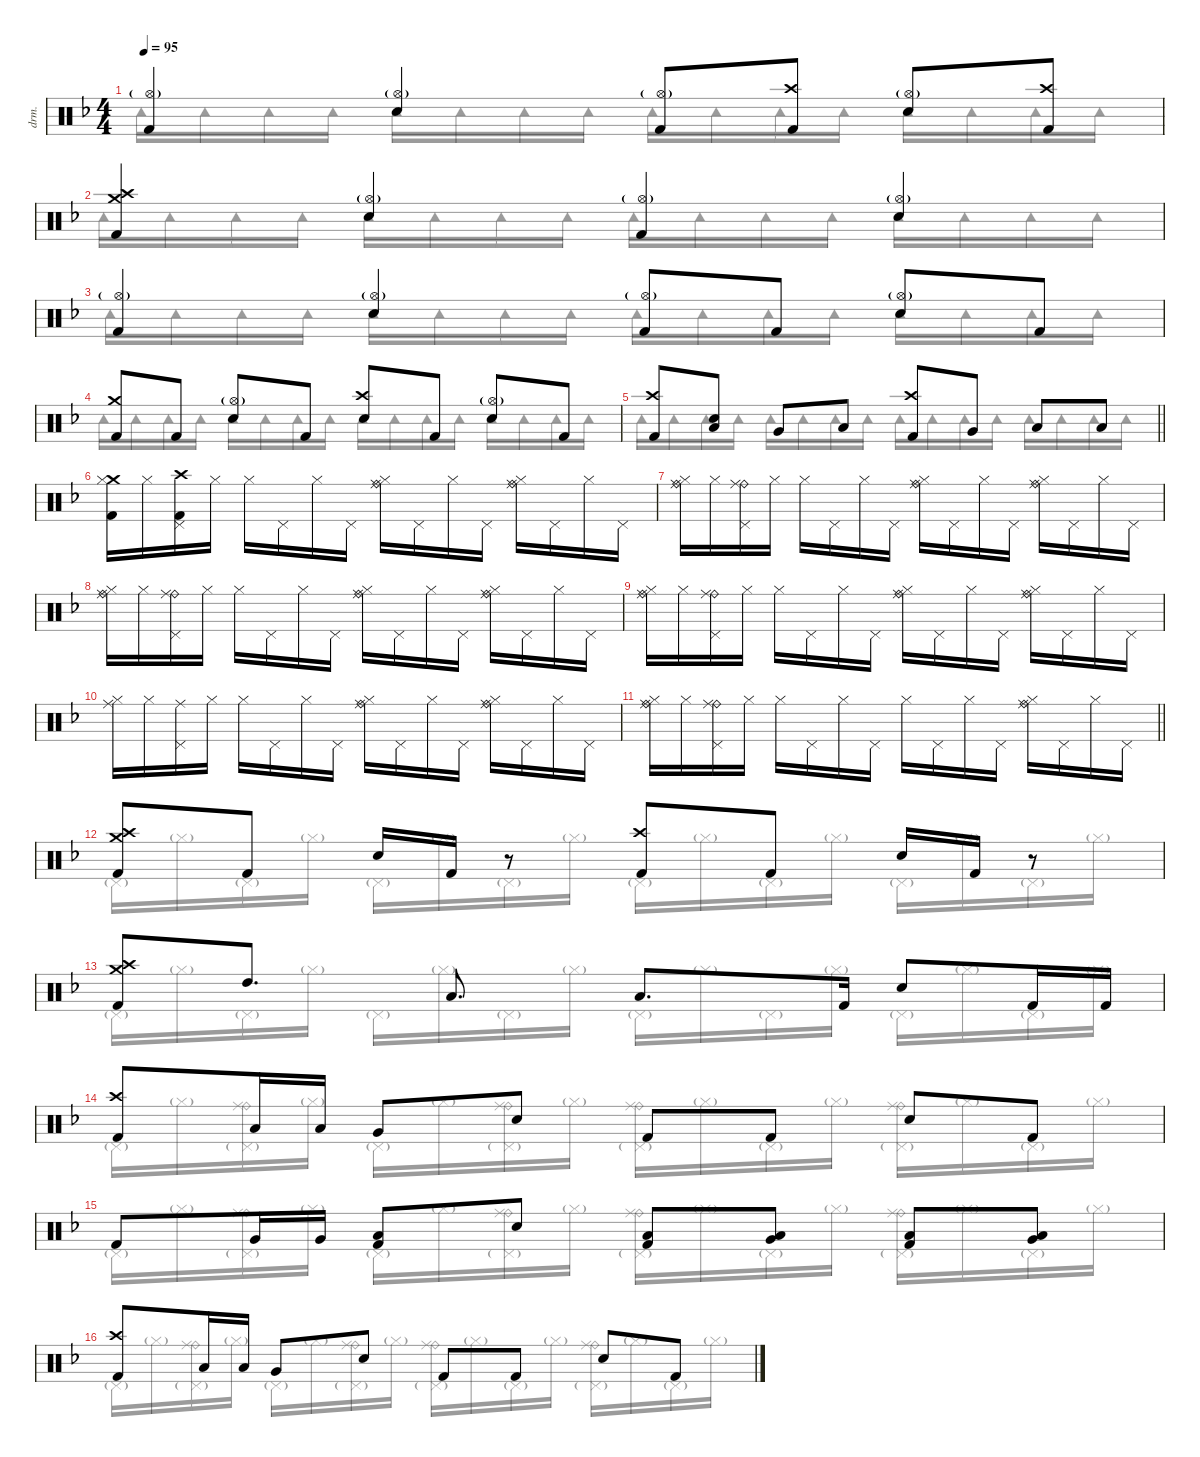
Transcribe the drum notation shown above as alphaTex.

\defaultSystemsLayout 4
\hideDynamics
\bracketExtendMode nobrackets
\track ("Jukka" "drm.") {instrument percussion}
\staff {score}
\articulation defaults
\voice
\ts (4 4)
\tempo 95
\clef neutral
\ks f
("Hi-Hat (open)"{g acc forcenatural} "Kick (hit) 2"{acc forcenatural}).4{dy f} ("Hi-Hat (open)"{g acc forcenatural} "Snare (hit) 2"{acc forcenatural}).4 ("Hi-Hat (open)"{g acc forcenatural} "Kick (hit) 2"{acc forcenatural}).8 ("Crash high (hit)"{acc forcenatural} "Kick (hit) 2"{acc forcenatural}).8 ("Hi-Hat (open)"{g acc forcenatural} "Snare (hit) 2"{acc forcenatural}).8 ("Crash high (hit)"{acc forcenatural} "Kick (hit) 2"{acc forcenatural}).8 |
("Crash high (hit)"{acc forcenatural} "Crash medium (hit)"{acc forcenatural} "Kick (hit) 2"{acc forcenatural}).4 ("Hi-Hat (open)"{g acc forcenatural} "Snare (hit) 2"{acc forcenatural}).4 ("Hi-Hat (open)"{g acc forcenatural} "Kick (hit) 2"{acc forcenatural}).4 ("Hi-Hat (open)"{g acc forcenatural} "Snare (hit) 2"{acc forcenatural}).4 |
("Hi-Hat (open)"{g acc forcenatural} "Kick (hit) 2"{acc forcenatural}).4 ("Hi-Hat (open)"{g acc forcenatural} "Snare (hit) 2"{acc forcenatural}).4 ("Hi-Hat (open)"{g acc forcenatural} "Kick (hit) 2"{acc forcenatural}).8 "Kick (hit) 2"{acc forcenatural}.8 ("Hi-Hat (open)"{g acc forcenatural} "Snare (hit) 2"{acc forcenatural}).8 "Kick (hit) 2"{acc forcenatural}.8 |
("Crash medium (hit)"{acc forcenatural} "Kick (hit) 2"{acc forcenatural}).8 "Kick (hit) 2"{acc forcenatural}.8 ("Hi-Hat (open)"{g acc forcenatural} "Snare (hit) 2"{acc forcenatural}).8 "Kick (hit) 2"{acc forcenatural}.8 ("Crash high (hit)"{acc forcenatural} "Snare (hit) 2"{acc forcenatural}).8 "Kick (hit) 2"{acc forcenatural}.8 ("Hi-Hat (open)"{g acc forcenatural} "Snare (hit) 2"{acc forcenatural}).8 "Kick (hit) 2"{acc forcenatural}.8 |
\barLineRight lightlight
("Crash high (hit)"{acc forcenatural} "Kick (hit) 2"{acc forcenatural}).8 ("Snare (hit) 2"{acc forcenatural} "Low Tom (hit)"{acc forcenatural}).8 "Very Low Tom (hit)"{acc forcenatural}.8 "Low Floor Tom (hit)"{acc forcenatural}.8 ("Crash high (hit)"{acc forcenatural} "Kick (hit) 2"{acc forcenatural}).8 "Very Low Tom (hit)"{acc forcenatural}.8 "Low Floor Tom (hit)"{acc forcenatural}.8 "Low Floor Tom (hit)"{acc forcenatural}.8 |
("Crash medium (hit)"{acc forcenatural} "Hi-Hat (closed)"{acc forcenatural} "Kick (hit) 2"{acc forcenatural}).16 "Hi-Hat (closed)"{acc forcenatural}.16{dy mp} ("Crash high (hit)"{acc forcenatural} "Pedal Hi-Hat (hit)"{acc forcenatural} "Kick (hit) 2"{acc forcenatural}).16{dy f} "Hi-Hat (closed)"{acc forcenatural}.16{dy mp} "Hi-Hat (closed)"{acc forcenatural}.16 "Pedal Hi-Hat (hit)"{acc forcenatural}.16 "Hi-Hat (closed)"{acc forcenatural}.16 "Pedal Hi-Hat (hit)"{acc forcenatural}.16 ("Hi-Hat (closed)"{acc forcenatural} "Ride (bell)"{acc forcenatural} "Ride (middle)"{acc forcenatural}).16 "Pedal Hi-Hat (hit)"{acc forcenatural}.16 "Hi-Hat (closed)"{acc forcenatural}.16 "Pedal Hi-Hat (hit)"{acc forcenatural}.16 ("Hi-Hat (closed)"{acc forcenatural} "Ride (bell)"{acc forcenatural} "Ride (middle)"{acc forcenatural}).16 "Pedal Hi-Hat (hit)"{acc forcenatural}.16 "Hi-Hat (closed)"{acc forcenatural}.16 "Pedal Hi-Hat (hit)"{acc forcenatural}.16 |
("Hi-Hat (closed)"{acc forcenatural} "Ride (bell)"{acc forcenatural} "Ride (middle)"{acc forcenatural}).16 "Hi-Hat (closed)"{acc forcenatural}.16 ("Pedal Hi-Hat (hit)"{acc forcenatural} "Ride (bell)"{acc forcenatural} "Ride (middle)"{acc forcenatural}).16 "Hi-Hat (closed)"{acc forcenatural}.16 "Hi-Hat (closed)"{acc forcenatural}.16 "Pedal Hi-Hat (hit)"{acc forcenatural}.16 "Hi-Hat (closed)"{acc forcenatural}.16 "Pedal Hi-Hat (hit)"{acc forcenatural}.16 ("Hi-Hat (closed)"{acc forcenatural} "Ride (bell)"{acc forcenatural} "Ride (middle)"{acc forcenatural}).16 "Pedal Hi-Hat (hit)"{acc forcenatural}.16 "Hi-Hat (closed)"{acc forcenatural}.16 "Pedal Hi-Hat (hit)"{acc forcenatural}.16 ("Hi-Hat (closed)"{acc forcenatural} "Ride (bell)"{acc forcenatural} "Ride (middle)"{acc forcenatural}).16 "Pedal Hi-Hat (hit)"{acc forcenatural}.16 "Hi-Hat (closed)"{acc forcenatural}.16 "Pedal Hi-Hat (hit)"{acc forcenatural}.16 |
("Hi-Hat (closed)"{acc forcenatural} "Ride (bell)"{acc forcenatural} "Ride (middle)"{acc forcenatural}).16 "Hi-Hat (closed)"{acc forcenatural}.16 ("Pedal Hi-Hat (hit)"{acc forcenatural} "Ride (bell)"{acc forcenatural} "Ride (middle)"{acc forcenatural}).16 "Hi-Hat (closed)"{acc forcenatural}.16 "Hi-Hat (closed)"{acc forcenatural}.16 "Pedal Hi-Hat (hit)"{acc forcenatural}.16 "Hi-Hat (closed)"{acc forcenatural}.16 "Pedal Hi-Hat (hit)"{acc forcenatural}.16 ("Hi-Hat (closed)"{acc forcenatural} "Ride (bell)"{acc forcenatural} "Ride (middle)"{acc forcenatural}).16 "Pedal Hi-Hat (hit)"{acc forcenatural}.16 "Hi-Hat (closed)"{acc forcenatural}.16 "Pedal Hi-Hat (hit)"{acc forcenatural}.16 ("Hi-Hat (closed)"{acc forcenatural} "Ride (bell)"{acc forcenatural} "Ride (middle)"{acc forcenatural}).16 "Pedal Hi-Hat (hit)"{acc forcenatural}.16 "Hi-Hat (closed)"{acc forcenatural}.16 "Pedal Hi-Hat (hit)"{acc forcenatural}.16 |
("Hi-Hat (closed)"{acc forcenatural} "Ride (bell)"{acc forcenatural} "Ride (middle)"{acc forcenatural}).16 "Hi-Hat (closed)"{acc forcenatural}.16 ("Pedal Hi-Hat (hit)"{acc forcenatural} "Ride (bell)"{acc forcenatural} "Ride (middle)"{acc forcenatural}).16 "Hi-Hat (closed)"{acc forcenatural}.16 "Hi-Hat (closed)"{acc forcenatural}.16 "Pedal Hi-Hat (hit)"{acc forcenatural}.16 "Hi-Hat (closed)"{acc forcenatural}.16 "Pedal Hi-Hat (hit)"{acc forcenatural}.16 ("Hi-Hat (closed)"{acc forcenatural} "Ride (bell)"{acc forcenatural} "Ride (middle)"{acc forcenatural}).16 "Pedal Hi-Hat (hit)"{acc forcenatural}.16 "Hi-Hat (closed)"{acc forcenatural}.16 "Pedal Hi-Hat (hit)"{acc forcenatural}.16 ("Hi-Hat (closed)"{acc forcenatural} "Ride (bell)"{acc forcenatural} "Ride (middle)"{acc forcenatural}).16 "Pedal Hi-Hat (hit)"{acc forcenatural}.16 "Hi-Hat (closed)"{acc forcenatural}.16 "Pedal Hi-Hat (hit)"{acc forcenatural}.16 |
("Hi-Hat (closed)"{acc forcenatural} "Ride (middle)"{acc forcenatural}).16 "Hi-Hat (closed)"{acc forcenatural}.16 ("Pedal Hi-Hat (hit)"{acc forcenatural} "Ride (middle)"{acc forcenatural}).16 "Hi-Hat (closed)"{acc forcenatural}.16 "Hi-Hat (closed)"{acc forcenatural}.16 "Pedal Hi-Hat (hit)"{acc forcenatural}.16 "Hi-Hat (closed)"{acc forcenatural}.16 "Pedal Hi-Hat (hit)"{acc forcenatural}.16 ("Hi-Hat (closed)"{acc forcenatural} "Ride (bell)"{acc forcenatural} "Ride (middle)"{acc forcenatural}).16 "Pedal Hi-Hat (hit)"{acc forcenatural}.16 "Hi-Hat (closed)"{acc forcenatural}.16 "Pedal Hi-Hat (hit)"{acc forcenatural}.16 ("Hi-Hat (closed)"{acc forcenatural} "Ride (bell)"{acc forcenatural} "Ride (middle)"{acc forcenatural}).16 "Pedal Hi-Hat (hit)"{acc forcenatural}.16 "Hi-Hat (closed)"{acc forcenatural}.16 "Pedal Hi-Hat (hit)"{acc forcenatural}.16 |
\barLineRight lightlight
("Hi-Hat (closed)"{acc forcenatural} "Ride (bell)"{acc forcenatural} "Ride (middle)"{acc forcenatural}).16 "Hi-Hat (closed)"{acc forcenatural}.16 ("Pedal Hi-Hat (hit)"{acc forcenatural} "Ride (bell)"{acc forcenatural} "Ride (middle)"{acc forcenatural}).16 "Hi-Hat (closed)"{acc forcenatural}.16 "Hi-Hat (closed)"{acc forcenatural}.16 "Pedal Hi-Hat (hit)"{acc forcenatural}.16 "Hi-Hat (closed)"{acc forcenatural}.16 "Pedal Hi-Hat (hit)"{acc forcenatural}.16 "Hi-Hat (closed)"{acc forcenatural}.16 "Pedal Hi-Hat (hit)"{acc forcenatural}.16 "Hi-Hat (closed)"{acc forcenatural}.16 "Pedal Hi-Hat (hit)"{acc forcenatural}.16 ("Hi-Hat (closed)"{acc forcenatural} "Ride (bell)"{acc forcenatural} "Ride (middle)"{acc forcenatural}).16 "Pedal Hi-Hat (hit)"{acc forcenatural}.16 "Hi-Hat (closed)"{acc forcenatural}.16 "Pedal Hi-Hat (hit)"{acc forcenatural}.16 |
("Crash high (hit)"{acc forcenatural} "Crash medium (hit)"{acc forcenatural} "Kick (hit) 2"{acc forcenatural}).8{dy f} "Kick (hit) 2"{acc forcenatural}.8 "Snare (hit) 2"{acc forcenatural}.16 "Kick (hit) 2"{acc forcenatural}.16 r.8 ("Crash high (hit)"{acc forcenatural} "Kick (hit) 2"{acc forcenatural}).8 "Kick (hit) 2"{acc forcenatural}.8 "Snare (hit) 2"{acc forcenatural}.16 "Kick (hit) 2"{acc forcenatural}.16 r.8 |
("Crash high (hit)"{acc forcenatural} "Crash medium (hit)"{acc forcenatural} "Kick (hit) 2"{acc forcenatural}).8 "High Tom (hit)"{acc forcenatural}.8{d} "Low Tom (hit)"{acc forcenatural}.8{d} "Low Floor Tom (hit)"{acc forcenatural}.8{d} "Kick (hit) 2"{acc forcenatural}.16 "Snare (hit) 2"{acc forcenatural}.8 "Kick (hit) 2"{acc forcenatural}.16 "Kick (hit) 2"{acc forcenatural}.16 |
("Crash high (hit)"{acc forcenatural} "Kick (hit) 2"{acc forcenatural}).8{dy mf} "Low Tom (hit)"{acc forcenatural}.16 "Low Tom (hit)"{acc forcenatural}.16 "Very Low Tom (hit)"{acc forcenatural}.8 "Snare (hit) 2"{acc forcenatural}.8{dy f} "Kick (hit) 2"{acc forcenatural}.8 "Kick (hit) 2"{acc forcenatural}.8 "Snare (hit) 2"{acc forcenatural}.8 "Kick (hit) 2"{acc forcenatural}.8 |
"Kick (hit) 2"{acc forcenatural}.8 "Very Low Tom (hit)"{acc forcenatural}.16 "Very Low Tom (hit)"{acc forcenatural}.16 ("Low Floor Tom (hit)"{acc forcenatural} "Kick (hit) 2"{acc forcenatural}).8 "Snare (hit) 2"{acc forcenatural}.8 ("Low Floor Tom (hit)"{acc forcenatural} "Kick (hit) 2"{acc forcenatural}).8 ("Very Low Tom (hit)"{acc forcenatural} "Low Floor Tom (hit)"{acc forcenatural}).8 ("Low Floor Tom (hit)"{acc forcenatural} "Kick (hit) 2"{acc forcenatural}).8 ("Very Low Tom (hit)"{acc forcenatural} "Low Floor Tom (hit)"{acc forcenatural}).8 |
("Crash high (hit)"{acc forcenatural} "Kick (hit) 2"{acc forcenatural}).8{dy mf} "Low Tom (hit)"{acc forcenatural}.16 "Low Tom (hit)"{acc forcenatural}.16 "Very Low Tom (hit)"{acc forcenatural}.8 "Snare (hit) 2"{acc forcenatural}.8{dy f} "Kick (hit) 2"{acc forcenatural}.8 "Kick (hit) 2"{acc forcenatural}.8 "Snare (hit) 2"{acc forcenatural}.8 "Kick (hit) 2"{acc forcenatural}.8
\voice
\clef neutral
\ottava regular
\simile none
\ks f "Tambourine (hit)"{acc forcenatural}.16{dy pp} "Tambourine (hit)"{acc forcenatural}.16 "Tambourine (hit)"{acc forcenatural}.16 "Tambourine (hit)"{acc forcenatural}.16 "Tambourine (hit)"{acc forcenatural}.16 "Tambourine (hit)"{acc forcenatural}.16 "Tambourine (hit)"{acc forcenatural}.16 "Tambourine (hit)"{acc forcenatural}.16 "Tambourine (hit)"{acc forcenatural}.16 "Tambourine (hit)"{acc forcenatural}.16 "Tambourine (hit)"{acc forcenatural}.16 "Tambourine (hit)"{acc forcenatural}.16 "Tambourine (hit)"{acc forcenatural}.16 "Tambourine (hit)"{acc forcenatural}.16 "Tambourine (hit)"{acc forcenatural}.16 "Tambourine (hit)"{acc forcenatural}.16
|
"Tambourine (hit)"{acc forcenatural}.16 "Tambourine (hit)"{acc forcenatural}.16 "Tambourine (hit)"{acc forcenatural}.16 "Tambourine (hit)"{acc forcenatural}.16 "Tambourine (hit)"{acc forcenatural}.16 "Tambourine (hit)"{acc forcenatural}.16 "Tambourine (hit)"{acc forcenatural}.16 "Tambourine (hit)"{acc forcenatural}.16 "Tambourine (hit)"{acc forcenatural}.16 "Tambourine (hit)"{acc forcenatural}.16 "Tambourine (hit)"{acc forcenatural}.16 "Tambourine (hit)"{acc forcenatural}.16 "Tambourine (hit)"{acc forcenatural}.16 "Tambourine (hit)"{acc forcenatural}.16 "Tambourine (hit)"{acc forcenatural}.16 "Tambourine (hit)"{acc forcenatural}.16 |
"Tambourine (hit)"{acc forcenatural}.16 "Tambourine (hit)"{acc forcenatural}.16 "Tambourine (hit)"{acc forcenatural}.16 "Tambourine (hit)"{acc forcenatural}.16 "Tambourine (hit)"{acc forcenatural}.16 "Tambourine (hit)"{acc forcenatural}.16 "Tambourine (hit)"{acc forcenatural}.16 "Tambourine (hit)"{acc forcenatural}.16 "Tambourine (hit)"{acc forcenatural}.16 "Tambourine (hit)"{acc forcenatural}.16 "Tambourine (hit)"{acc forcenatural}.16 "Tambourine (hit)"{acc forcenatural}.16 "Tambourine (hit)"{acc forcenatural}.16 "Tambourine (hit)"{acc forcenatural}.16 "Tambourine (hit)"{acc forcenatural}.16 "Tambourine (hit)"{acc forcenatural}.16 |
"Tambourine (hit)"{acc forcenatural}.16 "Tambourine (hit)"{acc forcenatural}.16 "Tambourine (hit)"{acc forcenatural}.16 "Tambourine (hit)"{acc forcenatural}.16 "Tambourine (hit)"{acc forcenatural}.16 "Tambourine (hit)"{acc forcenatural}.16 "Tambourine (hit)"{acc forcenatural}.16 "Tambourine (hit)"{acc forcenatural}.16 "Tambourine (hit)"{acc forcenatural}.16 "Tambourine (hit)"{acc forcenatural}.16 "Tambourine (hit)"{acc forcenatural}.16 "Tambourine (hit)"{acc forcenatural}.16 "Tambourine (hit)"{acc forcenatural}.16 "Tambourine (hit)"{acc forcenatural}.16 "Tambourine (hit)"{acc forcenatural}.16 "Tambourine (hit)"{acc forcenatural}.16 |
\barLineRight lightlight "Tambourine (hit)"{acc forcenatural}.16 "Tambourine (hit)"{acc forcenatural}.16 "Tambourine (hit)"{acc forcenatural}.16 "Tambourine (hit)"{acc forcenatural}.16 "Tambourine (hit)"{acc forcenatural}.16 "Tambourine (hit)"{acc forcenatural}.16 "Tambourine (hit)"{acc forcenatural}.16 "Tambourine (hit)"{acc forcenatural}.16 "Tambourine (hit)"{acc forcenatural}.16 "Tambourine (hit)"{acc forcenatural}.16 "Tambourine (hit)"{acc forcenatural}.16 "Tambourine (hit)"{acc forcenatural}.16 "Tambourine (hit)"{acc forcenatural}.16 "Tambourine (hit)"{acc forcenatural}.16 "Tambourine (hit)"{acc forcenatural}.16 "Tambourine (hit)"{acc forcenatural}.16
|
|
|
|
|
|
\barLineRight lightlight
|
"Pedal Hi-Hat (hit)"{g acc forcenatural}.16{dy fff} "Hi-Hat (closed)"{g acc forcenatural}.16 "Pedal Hi-Hat (hit)"{g acc forcenatural}.16 "Hi-Hat (closed)"{g acc forcenatural}.16 "Pedal Hi-Hat (hit)"{g acc forcenatural}.16 "Hi-Hat (closed)"{g acc forcenatural}.16 "Pedal Hi-Hat (hit)"{g acc forcenatural}.16 "Hi-Hat (closed)"{g acc forcenatural}.16 "Pedal Hi-Hat (hit)"{g acc forcenatural}.16 "Hi-Hat (closed)"{g acc forcenatural}.16 "Pedal Hi-Hat (hit)"{g acc forcenatural}.16 "Hi-Hat (closed)"{g acc forcenatural}.16 "Pedal Hi-Hat (hit)"{g acc forcenatural}.16 "Hi-Hat (closed)"{g acc forcenatural}.16 "Pedal Hi-Hat (hit)"{g acc forcenatural}.16 "Hi-Hat (closed)"{g acc forcenatural}.16 |
"Pedal Hi-Hat (hit)"{g acc forcenatural}.16 "Hi-Hat (closed)"{g acc forcenatural}.16 "Pedal Hi-Hat (hit)"{g acc forcenatural}.16 "Hi-Hat (closed)"{g acc forcenatural}.16 "Pedal Hi-Hat (hit)"{g acc forcenatural}.16 "Hi-Hat (closed)"{g acc forcenatural}.16 "Pedal Hi-Hat (hit)"{g acc forcenatural}.16 "Hi-Hat (closed)"{g acc forcenatural}.16 "Pedal Hi-Hat (hit)"{g acc forcenatural}.16 "Hi-Hat (closed)"{g acc forcenatural}.16 "Pedal Hi-Hat (hit)"{g acc forcenatural}.16 "Hi-Hat (closed)"{g acc forcenatural}.16 "Pedal Hi-Hat (hit)"{g acc forcenatural}.16 "Hi-Hat (closed)"{g acc forcenatural}.16 "Pedal Hi-Hat (hit)"{g acc forcenatural}.16 "Hi-Hat (closed)"{g acc forcenatural}.16 |
"Pedal Hi-Hat (hit)"{g acc forcenatural}.16 "Hi-Hat (closed)"{g acc forcenatural}.16 ("Pedal Hi-Hat (hit)"{g acc forcenatural} "Ride (bell)"{acc forcenatural} "Ride (middle)"{acc forcenatural}).16{dy mp} "Hi-Hat (closed)"{g acc forcenatural}.16{dy fff} "Pedal Hi-Hat (hit)"{g acc forcenatural}.16 "Hi-Hat (closed)"{g acc forcenatural}.16 ("Pedal Hi-Hat (hit)"{g acc forcenatural} "Ride (bell)"{acc forcenatural} "Ride (middle)"{acc forcenatural}).16{dy mp} "Hi-Hat (closed)"{g acc forcenatural}.16{dy fff} ("Pedal Hi-Hat (hit)"{g acc forcenatural} "Ride (bell)"{acc forcenatural} "Ride (middle)"{acc forcenatural}).16{dy mp} "Hi-Hat (closed)"{g acc forcenatural}.16{dy fff} "Pedal Hi-Hat (hit)"{g acc forcenatural}.16 "Hi-Hat (closed)"{g acc forcenatural}.16 ("Pedal Hi-Hat (hit)"{g acc forcenatural} "Ride (bell)"{acc forcenatural} "Ride (middle)"{acc forcenatural}).16{dy mp} "Hi-Hat (closed)"{g acc forcenatural}.16{dy fff} "Pedal Hi-Hat (hit)"{g acc forcenatural}.16 "Hi-Hat (closed)"{g acc forcenatural}.16 |
"Pedal Hi-Hat (hit)"{g acc forcenatural}.16 "Hi-Hat (closed)"{g acc forcenatural}.16 ("Pedal Hi-Hat (hit)"{g acc forcenatural} "Ride (bell)"{acc forcenatural} "Ride (middle)"{acc forcenatural}).16{dy mp} "Hi-Hat (closed)"{g acc forcenatural}.16{dy fff} "Pedal Hi-Hat (hit)"{g acc forcenatural}.16 "Hi-Hat (closed)"{g acc forcenatural}.16 ("Pedal Hi-Hat (hit)"{g acc forcenatural} "Ride (bell)"{acc forcenatural} "Ride (middle)"{acc forcenatural}).16{dy mp} "Hi-Hat (closed)"{g acc forcenatural}.16{dy fff} ("Pedal Hi-Hat (hit)"{g acc forcenatural} "Ride (bell)"{acc forcenatural} "Ride (middle)"{acc forcenatural}).16{dy mp} "Hi-Hat (closed)"{g acc forcenatural}.16{dy fff} "Pedal Hi-Hat (hit)"{g acc forcenatural}.16 "Hi-Hat (closed)"{g acc forcenatural}.16 ("Pedal Hi-Hat (hit)"{g acc forcenatural} "Ride (bell)"{acc forcenatural} "Ride (middle)"{acc forcenatural}).16{dy mp} "Hi-Hat (closed)"{g acc forcenatural}.16{dy fff} "Pedal Hi-Hat (hit)"{g acc forcenatural}.16 "Hi-Hat (closed)"{g acc forcenatural}.16 |
"Pedal Hi-Hat (hit)"{g acc forcenatural}.16 "Hi-Hat (closed)"{g acc forcenatural}.16 ("Pedal Hi-Hat (hit)"{g acc forcenatural} "Ride (bell)"{acc forcenatural} "Ride (middle)"{acc forcenatural}).16{dy mp} "Hi-Hat (closed)"{g acc forcenatural}.16{dy fff} "Pedal Hi-Hat (hit)"{g acc forcenatural}.16 "Hi-Hat (closed)"{g acc forcenatural}.16 ("Pedal Hi-Hat (hit)"{g acc forcenatural} "Ride (bell)"{acc forcenatural} "Ride (middle)"{acc forcenatural}).16{dy mp} "Hi-Hat (closed)"{g acc forcenatural}.16{dy fff} ("Pedal Hi-Hat (hit)"{g acc forcenatural} "Ride (bell)"{acc forcenatural} "Ride (middle)"{acc forcenatural}).16{dy mp} "Hi-Hat (closed)"{g acc forcenatural}.16{dy fff} "Pedal Hi-Hat (hit)"{g acc forcenatural}.16 "Hi-Hat (closed)"{g acc forcenatural}.16 ("Pedal Hi-Hat (hit)"{g acc forcenatural} "Ride (bell)"{acc forcenatural} "Ride (middle)"{acc forcenatural}).16{dy mp} "Hi-Hat (closed)"{g acc forcenatural}.16{dy fff} "Pedal Hi-Hat (hit)"{g acc forcenatural}.16 "Hi-Hat (closed)"{g acc forcenatural}.16
